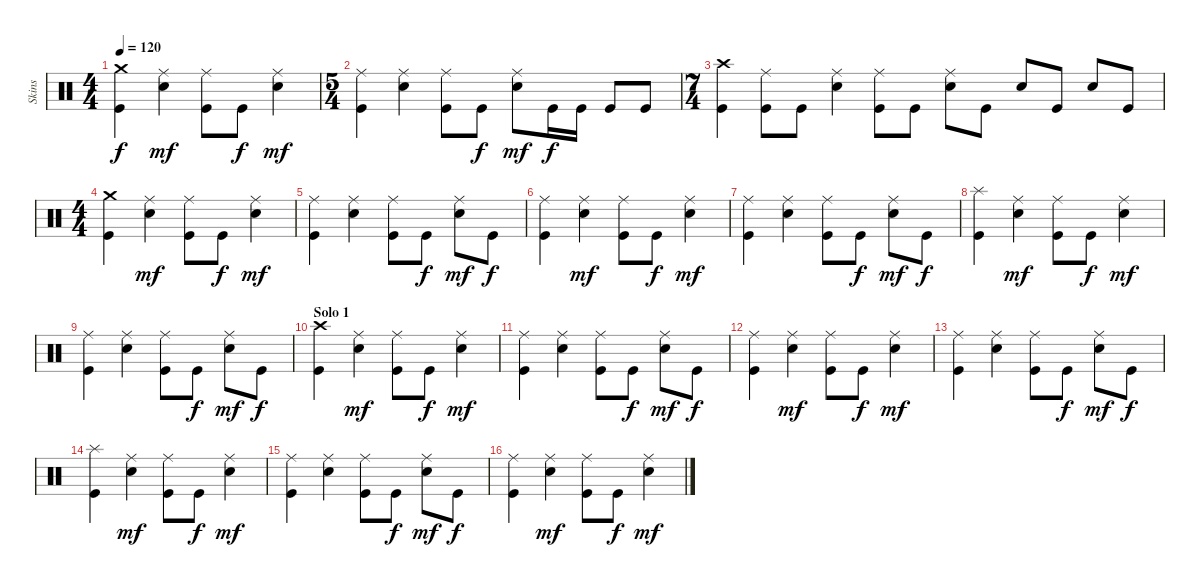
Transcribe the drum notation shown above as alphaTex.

\track ("Skins" "Skins") {instrument percussion}
\staff {score}
\articulation defaults
\ts (4 4)
\tempo 120
\clef neutral
\ks c
("Crash medium (hit)" "Kick (hit)").4{dy f} ("Ride (middle)" "Snare (hit) 2").4{dy mf} ("Ride (middle)" "Kick (hit)").8 "Kick (hit)".8{dy f} ("Ride (middle)" "Snare (hit) 2").4{dy mf} |
\ts (5 4)
("Ride (middle)" "Kick (hit)").4 ("Ride (middle)" "Snare (hit) 2").4 ("Ride (middle)" "Kick (hit)").8 "Kick (hit)".8{dy f} ("Ride (middle)" "Snare (hit) 2").8{dy mf} "Kick (hit)".16{dy f} "Kick (hit)".16 "Kick (hit)".8 "Kick (hit)".8 |
\ts (7 4)
("Crash high (hit)" "Kick (hit)").4 ("Ride (middle)" "Kick (hit)").8 "Kick (hit)".8 ("Ride (middle)" "Snare (hit) 2").4 ("Ride (middle)" "Kick (hit)").8 "Kick (hit)".8 ("Ride (middle)" "Snare (hit) 2").8 "Kick (hit)".8 "Snare (hit) 2".8 "Kick (hit)".8 "Snare (hit) 2".8 "Kick (hit)".8 |
\ts (4 4)
("Crash medium (hit)" "Kick (hit)").4 ("Ride (middle)" "Snare (hit) 2").4{dy mf} ("Ride (middle)" "Kick (hit)").8 "Kick (hit)".8{dy f} ("Ride (middle)" "Snare (hit) 2").4{dy mf} |
("Ride (middle)" "Kick (hit)").4 ("Ride (middle)" "Snare (hit) 2").4 ("Ride (middle)" "Kick (hit)").8 "Kick (hit)".8{dy f} ("Ride (middle)" "Snare (hit) 2").8{dy mf} "Kick (hit)".8{dy f} |
("Ride (middle)" "Kick (hit)").4 ("Ride (middle)" "Snare (hit) 2").4{dy mf} ("Ride (middle)" "Kick (hit)").8 "Kick (hit)".8{dy f} ("Ride (middle)" "Snare (hit) 2").4{dy mf} |
("Ride (middle)" "Kick (hit)").4 ("Ride (middle)" "Snare (hit) 2").4 ("Ride (middle)" "Kick (hit)").8 "Kick (hit)".8{dy f} ("Ride (middle)" "Snare (hit) 2").8{dy mf} "Kick (hit)".8{dy f} |
("Splash (hit)" "Kick (hit)").4 ("Ride (middle)" "Snare (hit) 2").4{dy mf} ("Ride (middle)" "Kick (hit)").8 "Kick (hit)".8{dy f} ("Ride (middle)" "Snare (hit) 2").4{dy mf} |
("Ride (middle)" "Kick (hit)").4 ("Ride (middle)" "Snare (hit) 2").4 ("Ride (middle)" "Kick (hit)").8 "Kick (hit)".8{dy f} ("Ride (middle)" "Snare (hit) 2").8{dy mf} "Kick (hit)".8{dy f} |
\section ("" "Solo 1")
("Crash high (hit)" "Kick (hit)").4 ("Ride (middle)" "Snare (hit) 2").4{dy mf} ("Ride (middle)" "Kick (hit)").8 "Kick (hit)".8{dy f} ("Ride (middle)" "Snare (hit) 2").4{dy mf} |
("Ride (middle)" "Kick (hit)").4 ("Ride (middle)" "Snare (hit) 2").4 ("Ride (middle)" "Kick (hit)").8 "Kick (hit)".8{dy f} ("Ride (middle)" "Snare (hit) 2").8{dy mf} "Kick (hit)".8{dy f} |
("Ride (middle)" "Kick (hit)").4 ("Ride (middle)" "Snare (hit) 2").4{dy mf} ("Ride (middle)" "Kick (hit)").8 "Kick (hit)".8{dy f} ("Ride (middle)" "Snare (hit) 2").4{dy mf} |
("Ride (middle)" "Kick (hit)").4 ("Ride (middle)" "Snare (hit) 2").4 ("Ride (middle)" "Kick (hit)").8 "Kick (hit)".8{dy f} ("Ride (middle)" "Snare (hit) 2").8{dy mf} "Kick (hit)".8{dy f} |
("Splash (hit)" "Kick (hit)").4 ("Ride (middle)" "Snare (hit) 2").4{dy mf} ("Ride (middle)" "Kick (hit)").8 "Kick (hit)".8{dy f} ("Ride (middle)" "Snare (hit) 2").4{dy mf} |
("Ride (middle)" "Kick (hit)").4 ("Ride (middle)" "Snare (hit) 2").4 ("Ride (middle)" "Kick (hit)").8 "Kick (hit)".8{dy f} ("Ride (middle)" "Snare (hit) 2").8{dy mf} "Kick (hit)".8{dy f} |
("Ride (middle)" "Kick (hit)").4 ("Ride (middle)" "Snare (hit) 2").4{dy mf} ("Ride (middle)" "Kick (hit)").8 "Kick (hit)".8{dy f} ("Ride (middle)" "Snare (hit) 2").4{dy mf}
